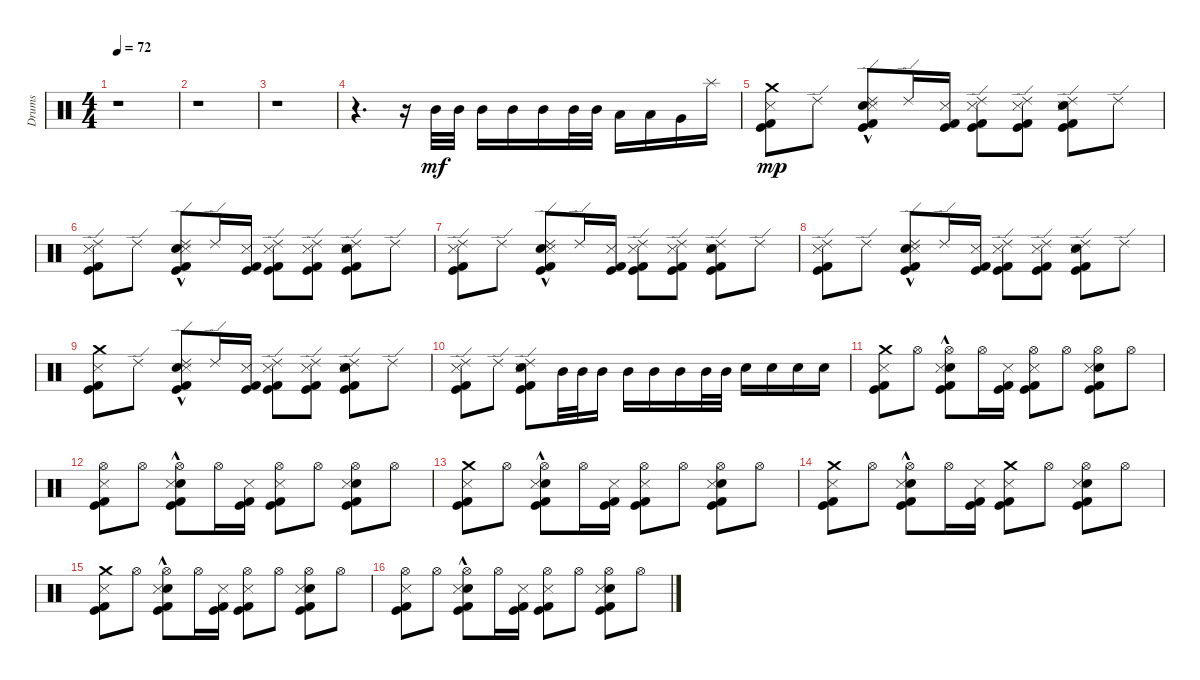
\track ("Drums" "Drums") {instrument percussion}
\staff {score}
\articulation defaults
\ts (4 4)
\tempo 72
\clef neutral
\ks c
r.1{dy mp} |
r.1 |
r.1 |
r.4{d} r.16 "Mid Tom (hit)".32{dy mf} "Mid Tom (hit)".32 "Mid Tom (hit)".16 "Mid Tom (hit)".16 "Mid Tom (hit)".16 "Mid Tom (hit)".32 "Mid Tom (hit)".32 "Low Tom (hit)".16 "Low Tom (hit)".16 "Very Low Tom (hit)".16 "Splash (hit)".16 |
("Crash medium (hit)" "Metronome (hit)" "Kick (hit)" "Kick (hit) 2").8{dy mp} "Ride (edge) 2".8 ("Snare (hit) 2" "Ride (edge) 2" "Metronome (hit)"{hac} "Kick (hit)"{hac} "Kick (hit) 2"{hac}).8 "Ride (edge) 2".16 ("Metronome (hit)" "Kick (hit)" "Kick (hit) 2").16 ("Ride (edge) 2" "Metronome (hit)" "Kick (hit)" "Kick (hit) 2").8 ("Ride (edge) 2" "Metronome (hit)" "Kick (hit)" "Kick (hit) 2").8 ("Snare (hit) 2" "Ride (edge) 2" "Metronome (hit)" "Kick (hit)" "Kick (hit) 2").8 "Ride (edge) 2".8 |
("Ride (edge) 2" "Metronome (hit)" "Kick (hit)" "Kick (hit) 2").8 "Ride (edge) 2".8 ("Snare (hit) 2" "Ride (edge) 2" "Metronome (hit)"{hac} "Kick (hit)"{hac} "Kick (hit) 2"{hac}).8 "Ride (edge) 2".16 ("Metronome (hit)" "Kick (hit)" "Kick (hit) 2").16 ("Ride (edge) 2" "Metronome (hit)" "Kick (hit)" "Kick (hit) 2").8 ("Ride (edge) 2" "Metronome (hit)" "Kick (hit)" "Kick (hit) 2").8 ("Snare (hit) 2" "Ride (edge) 2" "Metronome (hit)" "Kick (hit)" "Kick (hit) 2").8 "Ride (edge) 2".8 |
("Ride (edge) 2" "Metronome (hit)" "Kick (hit)" "Kick (hit) 2").8 "Ride (edge) 2".8 ("Snare (hit) 2" "Ride (edge) 2" "Metronome (hit)"{hac} "Kick (hit)"{hac} "Kick (hit) 2"{hac}).8 "Ride (edge) 2".16 ("Metronome (hit)" "Kick (hit)" "Kick (hit) 2").16 ("Ride (edge) 2" "Metronome (hit)" "Kick (hit)" "Kick (hit) 2").8 ("Ride (edge) 2" "Metronome (hit)" "Kick (hit)" "Kick (hit) 2").8 ("Snare (hit) 2" "Ride (edge) 2" "Metronome (hit)" "Kick (hit)" "Kick (hit) 2").8 "Ride (edge) 2".8 |
("Ride (edge) 2" "Metronome (hit)" "Kick (hit)" "Kick (hit) 2").8 "Ride (edge) 2".8 ("Snare (hit) 2" "Ride (edge) 2" "Metronome (hit)"{hac} "Kick (hit)"{hac} "Kick (hit) 2"{hac}).8 "Ride (edge) 2".16 ("Metronome (hit)" "Kick (hit)" "Kick (hit) 2").16 ("Ride (edge) 2" "Metronome (hit)" "Kick (hit)" "Kick (hit) 2").8 ("Ride (edge) 2" "Metronome (hit)" "Kick (hit)" "Kick (hit) 2").8 ("Snare (hit) 2" "Ride (edge) 2" "Metronome (hit)" "Kick (hit)" "Kick (hit) 2").8 "Ride (edge) 2".8 |
("Crash medium (hit)" "Metronome (hit)" "Kick (hit)" "Kick (hit) 2").8 "Ride (edge) 2".8 ("Snare (hit) 2" "Ride (edge) 2" "Metronome (hit)"{hac} "Kick (hit)"{hac} "Kick (hit) 2"{hac}).8 "Ride (edge) 2".16 ("Metronome (hit)" "Kick (hit)" "Kick (hit) 2").16 ("Ride (edge) 2" "Metronome (hit)" "Kick (hit)" "Kick (hit) 2").8 ("Ride (edge) 2" "Metronome (hit)" "Kick (hit)" "Kick (hit) 2").8 ("Snare (hit) 2" "Ride (edge) 2" "Metronome (hit)" "Kick (hit)" "Kick (hit) 2").8 "Ride (edge) 2".8 |
("Metronome (hit)" "Kick (hit)" "Kick (hit) 2" "Ride (edge) 2").8 "Ride (edge) 2".8 ("Metronome (hit)" "Kick (hit)" "Kick (hit) 2" "Snare (hit) 2" "Ride (edge) 2").8 "Mid Tom (hit)".32 "Mid Tom (hit)".32 "Mid Tom (hit)".16 "Mid Tom (hit)".16 "Mid Tom (hit)".16 "Mid Tom (hit)".16 "Mid Tom (hit)".32 "Mid Tom (hit)".32 "Snare (hit) 2".16 "Snare (hit) 2".16 "Snare (hit) 2".16 "Snare (hit) 2".16 |
("Crash medium (hit)" "Metronome (hit)" "Kick (hit)" "Kick (hit) 2").8 "Hi-Hat (open)".8 ("Snare (hit) 2" "Hi-Hat (open)" "Metronome (hit)"{hac} "Kick (hit)"{hac} "Kick (hit) 2"{hac}).8 "Hi-Hat (open)".16 ("Metronome (hit)" "Kick (hit)" "Kick (hit) 2").16 ("Hi-Hat (open)" "Metronome (hit)" "Kick (hit)" "Kick (hit) 2").8 "Hi-Hat (open)".8 ("Snare (hit) 2" "Hi-Hat (open)" "Metronome (hit)" "Kick (hit)" "Kick (hit) 2").8 "Hi-Hat (open)".8 |
("Hi-Hat (open)" "Metronome (hit)" "Kick (hit)" "Kick (hit) 2").8 "Hi-Hat (open)".8 ("Snare (hit) 2" "Hi-Hat (open)" "Metronome (hit)"{hac} "Kick (hit)"{hac} "Kick (hit) 2"{hac}).8 "Hi-Hat (open)".16 ("Metronome (hit)" "Kick (hit)" "Kick (hit) 2").16 ("Hi-Hat (open)" "Metronome (hit)" "Kick (hit)" "Kick (hit) 2").8 "Hi-Hat (open)".8 ("Snare (hit) 2" "Hi-Hat (open)" "Metronome (hit)" "Kick (hit)" "Kick (hit) 2").8 "Hi-Hat (open)".8 |
("Crash medium (hit)" "Metronome (hit)" "Kick (hit)" "Kick (hit) 2").8 "Hi-Hat (open)".8 ("Snare (hit) 2" "Hi-Hat (open)" "Metronome (hit)"{hac} "Kick (hit)"{hac} "Kick (hit) 2"{hac}).8 "Hi-Hat (open)".16 ("Metronome (hit)" "Kick (hit)" "Kick (hit) 2").16 ("Hi-Hat (open)" "Metronome (hit)" "Kick (hit)" "Kick (hit) 2").8 "Hi-Hat (open)".8 ("Snare (hit) 2" "Hi-Hat (open)" "Metronome (hit)" "Kick (hit)" "Kick (hit) 2").8 "Hi-Hat (open)".8 |
("Crash medium (hit)" "Metronome (hit)" "Kick (hit)" "Kick (hit) 2").8 "Hi-Hat (open)".8 ("Snare (hit) 2" "Hi-Hat (open)" "Metronome (hit)"{hac} "Kick (hit)"{hac} "Kick (hit) 2"{hac}).8 "Hi-Hat (open)".16 ("Metronome (hit)" "Kick (hit)" "Kick (hit) 2").16 ("Crash medium (hit)" "Metronome (hit)" "Kick (hit)" "Kick (hit) 2").8 "Hi-Hat (open)".8 ("Snare (hit) 2" "Hi-Hat (open)" "Metronome (hit)" "Kick (hit)" "Kick (hit) 2").8 "Hi-Hat (open)".8 |
("Crash medium (hit)" "Metronome (hit)" "Kick (hit)" "Kick (hit) 2").8 "Hi-Hat (open)".8 ("Snare (hit) 2" "Hi-Hat (open)" "Metronome (hit)"{hac} "Kick (hit)"{hac} "Kick (hit) 2"{hac}).8 "Hi-Hat (open)".16 ("Metronome (hit)" "Kick (hit)" "Kick (hit) 2").16 ("Hi-Hat (open)" "Metronome (hit)" "Kick (hit)" "Kick (hit) 2").8 "Hi-Hat (open)".8 ("Snare (hit) 2" "Hi-Hat (open)" "Metronome (hit)" "Kick (hit)" "Kick (hit) 2").8 "Hi-Hat (open)".8 |
("Hi-Hat (open)" "Metronome (hit)" "Kick (hit)" "Kick (hit) 2").8 "Hi-Hat (open)".8 ("Snare (hit) 2" "Hi-Hat (open)" "Metronome (hit)"{hac} "Kick (hit)"{hac} "Kick (hit) 2"{hac}).8 "Hi-Hat (open)".16 ("Metronome (hit)" "Kick (hit)" "Kick (hit) 2").16 ("Hi-Hat (open)" "Metronome (hit)" "Kick (hit)" "Kick (hit) 2").8 "Hi-Hat (open)".8 ("Snare (hit) 2" "Hi-Hat (open)" "Metronome (hit)" "Kick (hit)" "Kick (hit) 2").8 "Hi-Hat (open)".8
